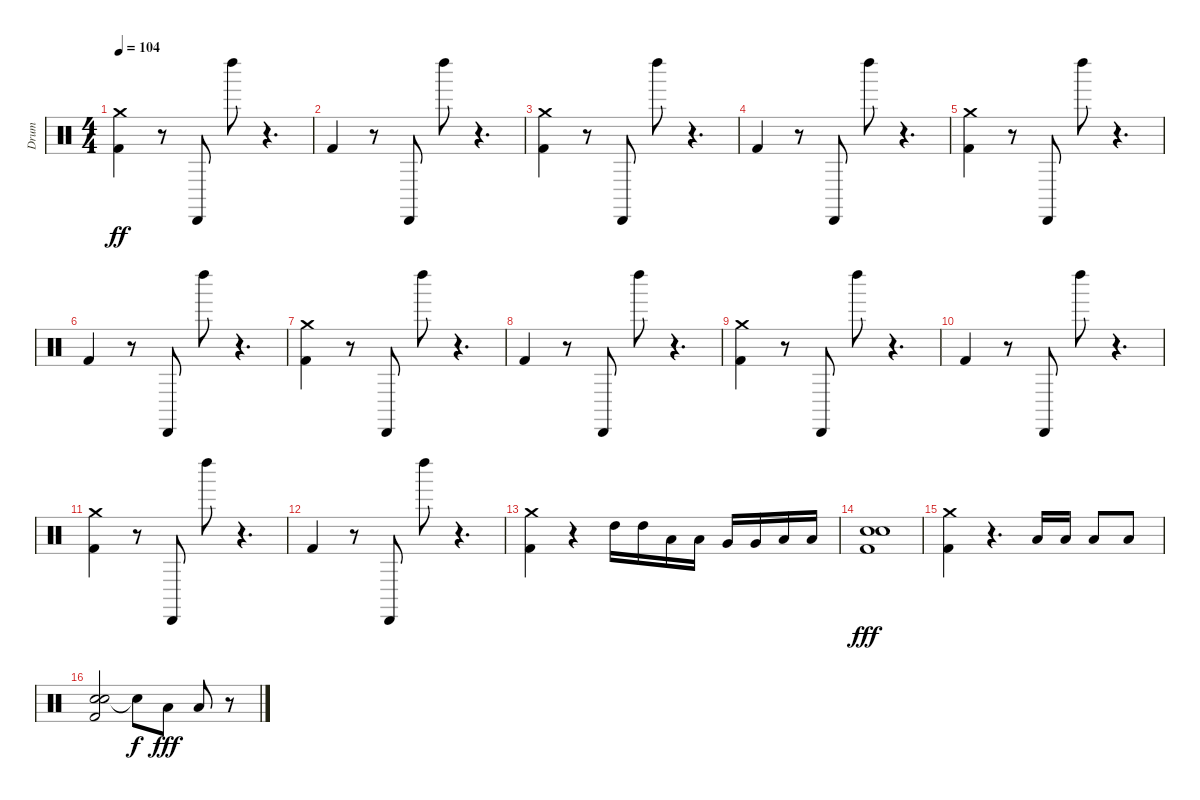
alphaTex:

\track ("Drum" "Drum") {instrument percussion}
\staff {score}
\articulation defaults
\ts (4 4)
\tempo 104
\clef neutral
\ks c
("Crash medium (hit)" "Kick (hit) 2").4{dy ff} r.8 "Cabasa (hit)".8 "Left Maraca (hit)".8 r.4{d} |
"Kick (hit) 2".4 r.8 "Cabasa (hit)".8 "Left Maraca (hit)".8 r.4{d} |
("Crash medium (hit)" "Kick (hit) 2").4 r.8 "Cabasa (hit)".8 "Left Maraca (hit)".8 r.4{d} |
"Kick (hit) 2".4 r.8 "Cabasa (hit)".8 "Left Maraca (hit)".8 r.4{d} |
("Crash medium (hit)" "Kick (hit) 2").4 r.8 "Cabasa (hit)".8 "Left Maraca (hit)".8 r.4{d} |
"Kick (hit) 2".4 r.8 "Cabasa (hit)".8 "Left Maraca (hit)".8 r.4{d} |
("Crash medium (hit)" "Kick (hit) 2").4 r.8 "Cabasa (hit)".8 "Left Maraca (hit)".8 r.4{d} |
"Kick (hit) 2".4 r.8 "Cabasa (hit)".8 "Left Maraca (hit)".8 r.4{d} |
("Crash medium (hit)" "Kick (hit) 2").4 r.8 "Cabasa (hit)".8 "Left Maraca (hit)".8 r.4{d} |
"Kick (hit) 2".4 r.8 "Cabasa (hit)".8 "Left Maraca (hit)".8 r.4{d} |
("Crash medium (hit)" "Kick (hit) 2").4 r.8 "Cabasa (hit)".8 "Left Maraca (hit)".8 r.4{d} |
"Kick (hit) 2".4 r.8 "Cabasa (hit)".8 "Left Maraca (hit)".8 r.4{d} |
("Crash medium (hit)" "Kick (hit) 2").4 r.4 "High Tom (hit)".16 "High Tom (hit)".16 "Low Tom (hit)".16 "Low Tom (hit)".16 "Very Low Tom (hit)".16 "Very Low Tom (hit)".16 "Low Floor Tom (hit)".16 "Low Floor Tom (hit)".16 |
("Electric Snare (hit)" "Kick (hit) 2" "Electric Snare (hit)").1{dy fff} |
("Crash medium (hit)" "Kick (hit) 2").4 r.4{d} "Low Tom (hit)".16 "Low Tom (hit)".16 "Low Tom (hit)".8 "Low Tom (hit)".8 |
("Electric Snare (hit)" "Kick (hit) 2" "Electric Snare (hit)").2 "Snare (hit)"{t}.8{dy f} "Low Floor Tom (hit)".8{dy fff} "Low Floor Tom (hit)".8 r.8
